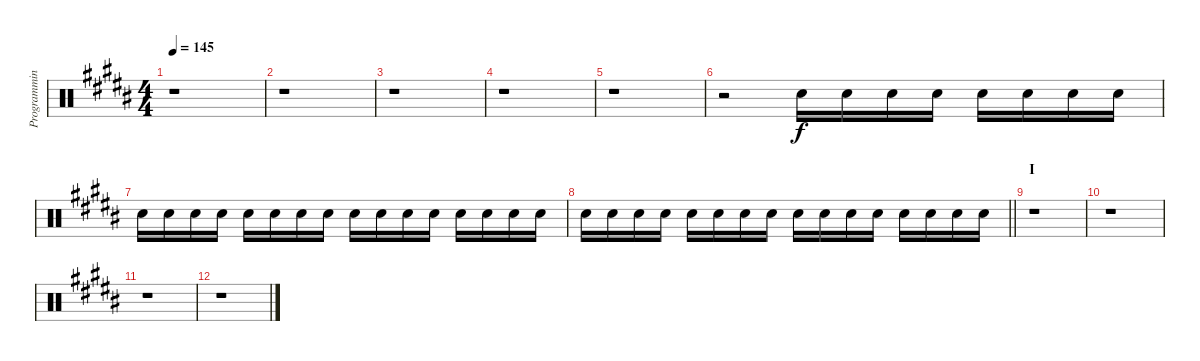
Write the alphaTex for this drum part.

\track ("Programming Drums II" "Programmin") {instrument percussion}
\staff {score}
\articulation defaults
\ts (4 4)
\tempo 145
\clef neutral
\ks b
r.1{dy f} |
r.1 |
r.1 |
r.1 |
r.1 |
r.2 "Electric Snare (hit)".16 "Electric Snare (hit)".16 "Electric Snare (hit)".16 "Electric Snare (hit)".16 "Electric Snare (hit)".16 "Electric Snare (hit)".16 "Electric Snare (hit)".16 "Electric Snare (hit)".16 |
"Electric Snare (hit)".16 "Electric Snare (hit)".16 "Electric Snare (hit)".16 "Electric Snare (hit)".16 "Electric Snare (hit)".16 "Electric Snare (hit)".16 "Electric Snare (hit)".16 "Electric Snare (hit)".16 "Electric Snare (hit)".16 "Electric Snare (hit)".16 "Electric Snare (hit)".16 "Electric Snare (hit)".16 "Electric Snare (hit)".16 "Electric Snare (hit)".16 "Electric Snare (hit)".16 "Electric Snare (hit)".16 |
\barLineRight lightlight "Electric Snare (hit)".16 "Electric Snare (hit)".16 "Electric Snare (hit)".16 "Electric Snare (hit)".16 "Electric Snare (hit)".16 "Electric Snare (hit)".16 "Electric Snare (hit)".16 "Electric Snare (hit)".16 "Electric Snare (hit)".16 "Electric Snare (hit)".16 "Electric Snare (hit)".16 "Electric Snare (hit)".16 "Electric Snare (hit)".16 "Electric Snare (hit)".16 "Electric Snare (hit)".16 "Electric Snare (hit)".16
|
\section ("" "I")
r.1 |
r.1 |
r.1 |
r.1
